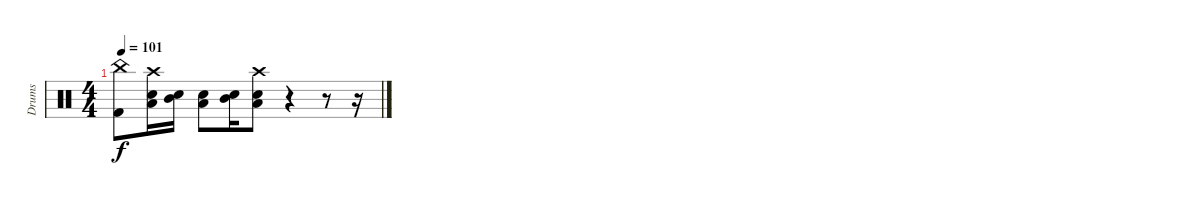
\track ("Drums" "Drums") {instrument percussion}
\staff {score}
\articulation defaults
\ts (4 4)
\tempo 101
\clef neutral
\ks c
("China (hit)" "Kick (hit) 2").8{dy f} ("Crash high (hit)" "Electric Snare (hit)" "Low Tom (hit)").16 ("Electric Snare (hit)" "Mid Tom (hit)").16 ("Low Tom (hit)" "Electric Snare (hit)").8 ("Mid Tom (hit)" "Electric Snare (hit)").16 ("Low Tom (hit)" "Crash high (hit)" "Electric Snare (hit)").8 r.4 r.8 r.16
